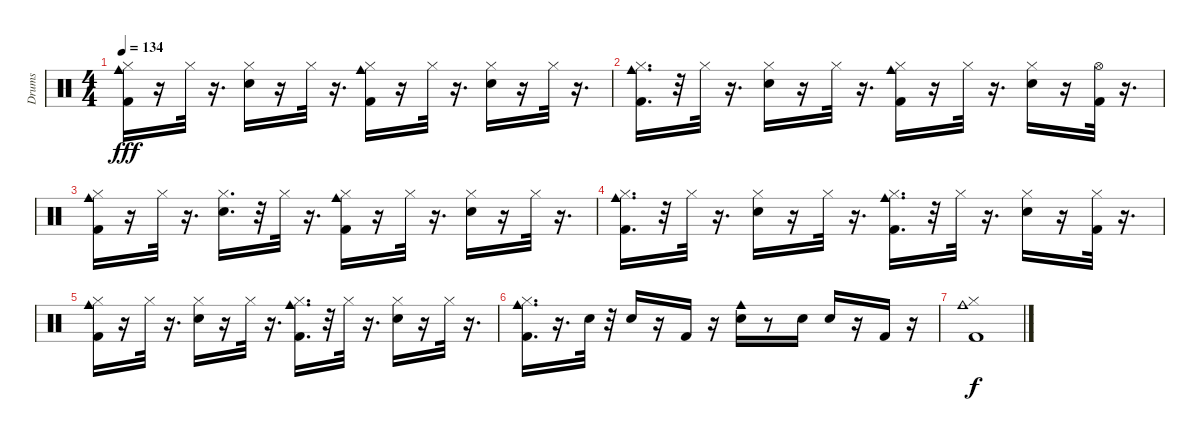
\track ("Drums" "Drums") {instrument percussion}
\staff {score}
\articulation defaults
\ts (4 4)
\tempo 134
\clef neutral
\ks c
("Kick (hit) 2" "Hi-Hat (closed)" "Cowbell medium (hit)").16{dy fff} r.16 "Hi-Hat (closed)".32 r.16{d} ("Snare (hit) 2" "Hi-Hat (closed)").16 r.16 "Hi-Hat (closed)".32 r.16{d} ("Kick (hit) 2" "Hi-Hat (closed)" "Cowbell medium (hit)").16 r.16 "Hi-Hat (closed)".32 r.16{d} ("Snare (hit) 2" "Hi-Hat (closed)").16 r.16 "Hi-Hat (closed)".32 r.16{d} |
("Kick (hit) 2" "Hi-Hat (closed)" "Cowbell medium (hit)").16{d} r.32 "Hi-Hat (closed)".32 r.16{d} ("Snare (hit) 2" "Hi-Hat (closed)").16 r.16 "Hi-Hat (closed)".32 r.16{d} ("Kick (hit) 2" "Hi-Hat (closed)" "Cowbell medium (hit)").16 r.16 "Hi-Hat (closed)".32 r.16{d} ("Snare (hit) 2" "Hi-Hat (closed)").16 r.16 ("Kick (hit) 2" "Hi-Hat (open)").32 r.16{d} |
("Kick (hit) 2" "Hi-Hat (closed)" "Cowbell medium (hit)").16 r.16 "Hi-Hat (closed)".32 r.16{d} ("Snare (hit) 2" "Hi-Hat (closed)").16{d} r.32 "Hi-Hat (closed)".32 r.16{d} ("Kick (hit) 2" "Hi-Hat (closed)" "Cowbell medium (hit)").16 r.16 "Hi-Hat (closed)".32 r.16{d} ("Snare (hit) 2" "Hi-Hat (closed)").16 r.16 "Hi-Hat (closed)".32 r.16{d} |
("Kick (hit) 2" "Hi-Hat (closed)" "Cowbell medium (hit)").16{d} r.32 "Hi-Hat (closed)".32 r.16{d} ("Snare (hit) 2" "Hi-Hat (closed)").16 r.16 "Hi-Hat (closed)".32 r.16{d} ("Kick (hit) 2" "Hi-Hat (closed)" "Cowbell medium (hit)").16{d} r.32 "Hi-Hat (closed)".32 r.16{d} ("Snare (hit) 2" "Hi-Hat (closed)").16 r.16 ("Kick (hit) 2" "Hi-Hat (closed)").32 r.16{d} |
("Kick (hit) 2" "Hi-Hat (closed)" "Cowbell medium (hit)").16 r.16 "Hi-Hat (closed)".32 r.16{d} ("Snare (hit) 2" "Hi-Hat (closed)").16 r.16 "Hi-Hat (closed)".32 r.16{d} ("Kick (hit) 2" "Hi-Hat (closed)" "Cowbell medium (hit)").16{d} r.32 "Hi-Hat (closed)".32 r.16{d} ("Snare (hit) 2" "Hi-Hat (closed)").16 r.16 "Hi-Hat (closed)".32 r.16{d} |
("Kick (hit) 2" "Hi-Hat (closed)" "Cowbell medium (hit)").16{d} r.16{d} "Snare (hit) 2".32 r.32 "Snare (hit) 2".16 r.16 "Kick (hit) 2".16 r.16 ("Snare (hit) 2" "Cowbell medium (hit)").16 r.8 "Snare (hit) 2".16 "Snare (hit) 2".16 r.16 "Kick (hit) 2".16 r.16 |
("Kick (hit) 2" "Hi-Hat (closed)" "Cowbell medium (hit)").1{dy f}
